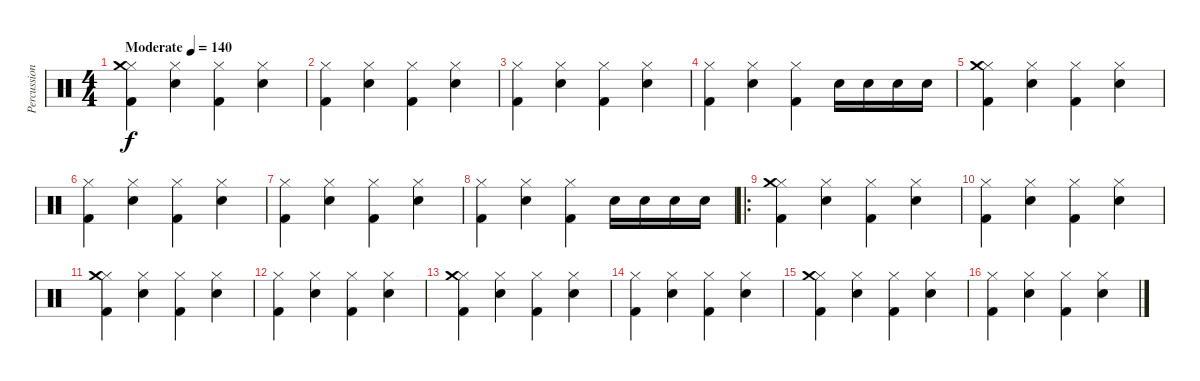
\track ("Percussion" "Percussion") {instrument percussion}
\staff {score}
\articulation defaults
\ts (4 4)
\tempo (140 "Moderate")
\clef neutral
\ks c
("Hi-Hat (closed)" "Kick (hit) 2" "Crash medium (hit)").4{dy f} ("Hi-Hat (closed)" "Electric Snare (hit)").4 ("Hi-Hat (closed)" "Kick (hit) 2").4 ("Hi-Hat (closed)" "Electric Snare (hit)").4 |
("Hi-Hat (closed)" "Kick (hit) 2").4 ("Hi-Hat (closed)" "Electric Snare (hit)").4 ("Hi-Hat (closed)" "Kick (hit) 2").4 ("Hi-Hat (closed)" "Electric Snare (hit)").4 |
("Hi-Hat (closed)" "Kick (hit) 2").4 ("Hi-Hat (closed)" "Electric Snare (hit)").4 ("Hi-Hat (closed)" "Kick (hit) 2").4 ("Hi-Hat (closed)" "Electric Snare (hit)").4 |
("Hi-Hat (closed)" "Kick (hit) 2").4 ("Hi-Hat (closed)" "Electric Snare (hit)").4 ("Hi-Hat (closed)" "Kick (hit) 2").4 "Electric Snare (hit)".16 "Electric Snare (hit)".16 "Electric Snare (hit)".16 "Electric Snare (hit)".16 |
("Hi-Hat (closed)" "Kick (hit) 2" "Crash medium (hit)").4 ("Hi-Hat (closed)" "Electric Snare (hit)").4 ("Hi-Hat (closed)" "Kick (hit) 2").4 ("Hi-Hat (closed)" "Electric Snare (hit)").4 |
("Hi-Hat (closed)" "Kick (hit) 2").4 ("Hi-Hat (closed)" "Electric Snare (hit)").4 ("Hi-Hat (closed)" "Kick (hit) 2").4 ("Hi-Hat (closed)" "Electric Snare (hit)").4 |
("Hi-Hat (closed)" "Kick (hit) 2").4 ("Hi-Hat (closed)" "Electric Snare (hit)").4 ("Hi-Hat (closed)" "Kick (hit) 2").4 ("Hi-Hat (closed)" "Electric Snare (hit)").4 |
("Hi-Hat (closed)" "Kick (hit) 2").4 ("Hi-Hat (closed)" "Electric Snare (hit)").4 ("Hi-Hat (closed)" "Kick (hit) 2").4 "Electric Snare (hit)".16 "Electric Snare (hit)".16 "Electric Snare (hit)".16 "Electric Snare (hit)".16 |
\ro
("Hi-Hat (closed)" "Kick (hit) 2" "Crash medium (hit)").4 ("Hi-Hat (closed)" "Electric Snare (hit)").4 ("Hi-Hat (closed)" "Kick (hit) 2").4 ("Hi-Hat (closed)" "Electric Snare (hit)").4 |
("Hi-Hat (closed)" "Kick (hit) 2").4 ("Hi-Hat (closed)" "Electric Snare (hit)").4 ("Hi-Hat (closed)" "Kick (hit) 2").4 ("Hi-Hat (closed)" "Electric Snare (hit)").4 |
("Hi-Hat (closed)" "Kick (hit) 2" "Crash medium (hit)").4 ("Hi-Hat (closed)" "Electric Snare (hit)").4 ("Hi-Hat (closed)" "Kick (hit) 2").4 ("Hi-Hat (closed)" "Electric Snare (hit)").4 |
("Hi-Hat (closed)" "Kick (hit) 2").4 ("Hi-Hat (closed)" "Electric Snare (hit)").4 ("Hi-Hat (closed)" "Kick (hit) 2").4 ("Hi-Hat (closed)" "Electric Snare (hit)").4 |
("Hi-Hat (closed)" "Kick (hit) 2" "Crash medium (hit)").4 ("Hi-Hat (closed)" "Electric Snare (hit)").4 ("Hi-Hat (closed)" "Kick (hit) 2").4 ("Hi-Hat (closed)" "Electric Snare (hit)").4 |
("Hi-Hat (closed)" "Kick (hit) 2").4 ("Hi-Hat (closed)" "Electric Snare (hit)").4 ("Hi-Hat (closed)" "Kick (hit) 2").4 ("Hi-Hat (closed)" "Electric Snare (hit)").4 |
("Hi-Hat (closed)" "Kick (hit) 2" "Crash medium (hit)").4 ("Hi-Hat (closed)" "Electric Snare (hit)").4 ("Hi-Hat (closed)" "Kick (hit) 2").4 ("Hi-Hat (closed)" "Electric Snare (hit)").4 |
("Hi-Hat (closed)" "Kick (hit) 2").4 ("Hi-Hat (closed)" "Electric Snare (hit)").4 ("Hi-Hat (closed)" "Kick (hit) 2").4 ("Hi-Hat (closed)" "Electric Snare (hit)").4
